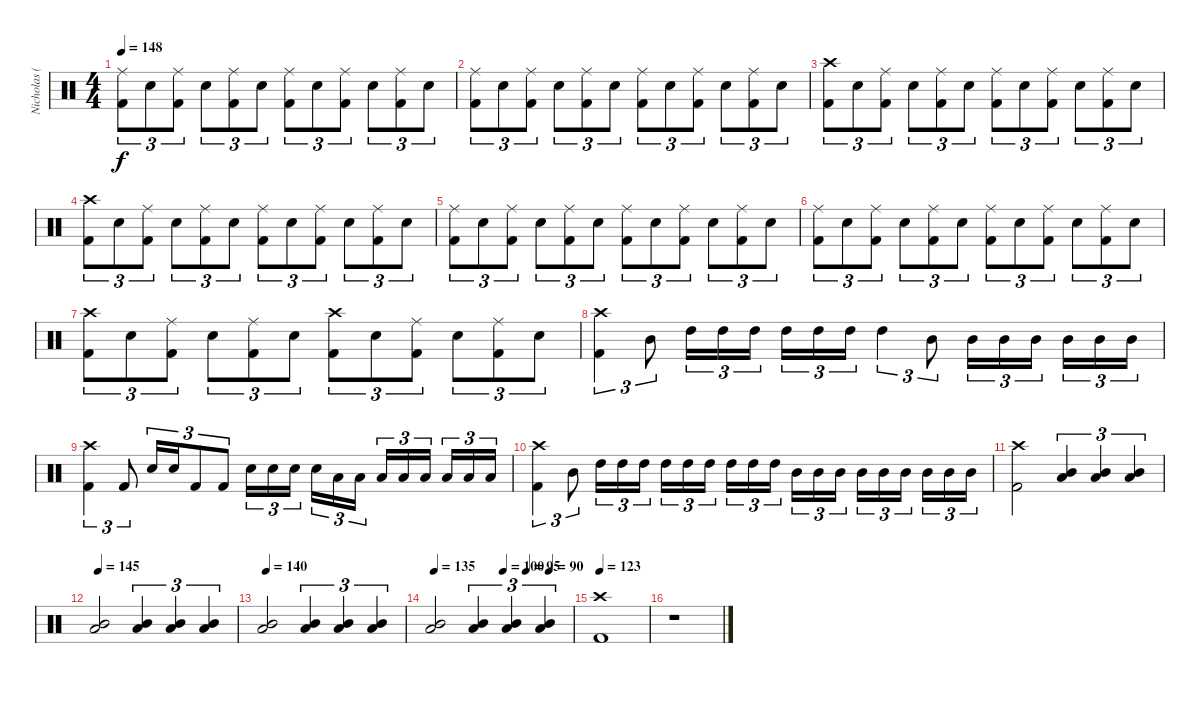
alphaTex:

\track ("Nicholas (Drums)" "Nicholas (") {instrument percussion}
\staff {score}
\articulation defaults
\ts (4 4)
\tempo 148
\clef neutral
\ks c
("Ride (middle)" "Kick (hit) 2").8{tu (3 2) dy f} "Electric Snare (hit)".8{tu (3 2)} ("Ride (middle)" "Kick (hit) 2").8{tu (3 2)} "Electric Snare (hit)".8{tu (3 2)} ("Ride (middle)" "Kick (hit) 2").8{tu (3 2)} "Electric Snare (hit)".8{tu (3 2)} ("Ride (middle)" "Kick (hit) 2").8{tu (3 2)} "Electric Snare (hit)".8{tu (3 2)} ("Ride (middle)" "Kick (hit) 2").8{tu (3 2)} "Electric Snare (hit)".8{tu (3 2)} ("Ride (middle)" "Kick (hit) 2").8{tu (3 2)} "Electric Snare (hit)".8{tu (3 2)} |
("Ride (middle)" "Kick (hit) 2").8{tu (3 2)} "Electric Snare (hit)".8{tu (3 2)} ("Ride (middle)" "Kick (hit) 2").8{tu (3 2)} "Electric Snare (hit)".8{tu (3 2)} ("Ride (middle)" "Kick (hit) 2").8{tu (3 2)} "Electric Snare (hit)".8{tu (3 2)} ("Ride (middle)" "Kick (hit) 2").8{tu (3 2)} "Electric Snare (hit)".8{tu (3 2)} ("Ride (middle)" "Kick (hit) 2").8{tu (3 2)} "Electric Snare (hit)".8{tu (3 2)} ("Ride (middle)" "Kick (hit) 2").8{tu (3 2)} "Electric Snare (hit)".8{tu (3 2)} |
("Crash high (hit)" "Kick (hit) 2").8{tu (3 2)} "Electric Snare (hit)".8{tu (3 2)} ("Ride (middle)" "Kick (hit) 2").8{tu (3 2)} "Electric Snare (hit)".8{tu (3 2)} ("Ride (middle)" "Kick (hit) 2").8{tu (3 2)} "Electric Snare (hit)".8{tu (3 2)} ("Ride (middle)" "Kick (hit) 2").8{tu (3 2)} "Electric Snare (hit)".8{tu (3 2)} ("Ride (middle)" "Kick (hit) 2").8{tu (3 2)} "Electric Snare (hit)".8{tu (3 2)} ("Ride (middle)" "Kick (hit) 2").8{tu (3 2)} "Electric Snare (hit)".8{tu (3 2)} |
("Crash high (hit)" "Kick (hit) 2").8{tu (3 2)} "Electric Snare (hit)".8{tu (3 2)} ("Ride (middle)" "Kick (hit) 2").8{tu (3 2)} "Electric Snare (hit)".8{tu (3 2)} ("Ride (middle)" "Kick (hit) 2").8{tu (3 2)} "Electric Snare (hit)".8{tu (3 2)} ("Ride (middle)" "Kick (hit) 2").8{tu (3 2)} "Electric Snare (hit)".8{tu (3 2)} ("Ride (middle)" "Kick (hit) 2").8{tu (3 2)} "Electric Snare (hit)".8{tu (3 2)} ("Ride (middle)" "Kick (hit) 2").8{tu (3 2)} "Electric Snare (hit)".8{tu (3 2)} |
("Ride (middle)" "Kick (hit) 2").8{tu (3 2)} "Electric Snare (hit)".8{tu (3 2)} ("Ride (middle)" "Kick (hit) 2").8{tu (3 2)} "Electric Snare (hit)".8{tu (3 2)} ("Ride (middle)" "Kick (hit) 2").8{tu (3 2)} "Electric Snare (hit)".8{tu (3 2)} ("Ride (middle)" "Kick (hit) 2").8{tu (3 2)} "Electric Snare (hit)".8{tu (3 2)} ("Ride (middle)" "Kick (hit) 2").8{tu (3 2)} "Electric Snare (hit)".8{tu (3 2)} ("Ride (middle)" "Kick (hit) 2").8{tu (3 2)} "Electric Snare (hit)".8{tu (3 2)} |
("Ride (middle)" "Kick (hit) 2").8{tu (3 2)} "Electric Snare (hit)".8{tu (3 2)} ("Ride (middle)" "Kick (hit) 2").8{tu (3 2)} "Electric Snare (hit)".8{tu (3 2)} ("Ride (middle)" "Kick (hit) 2").8{tu (3 2)} "Electric Snare (hit)".8{tu (3 2)} ("Ride (middle)" "Kick (hit) 2").8{tu (3 2)} "Electric Snare (hit)".8{tu (3 2)} ("Ride (middle)" "Kick (hit) 2").8{tu (3 2)} "Electric Snare (hit)".8{tu (3 2)} ("Ride (middle)" "Kick (hit) 2").8{tu (3 2)} "Electric Snare (hit)".8{tu (3 2)} |
("Crash high (hit)" "Kick (hit) 2").8{tu (3 2)} "Electric Snare (hit)".8{tu (3 2)} ("Ride (middle)" "Kick (hit) 2").8{tu (3 2)} "Electric Snare (hit)".8{tu (3 2)} ("Ride (middle)" "Kick (hit) 2").8{tu (3 2)} "Electric Snare (hit)".8{tu (3 2)} ("Crash high (hit)" "Kick (hit) 2").8{tu (3 2)} "Electric Snare (hit)".8{tu (3 2)} ("Ride (middle)" "Kick (hit) 2").8{tu (3 2)} "Electric Snare (hit)".8{tu (3 2)} ("Ride (middle)" "Kick (hit) 2").8{tu (3 2)} "Electric Snare (hit)".8{tu (3 2)} |
("Crash high (hit)" "Kick (hit) 2").4{tu (3 2)} "Mid Tom (hit)".8{tu (3 2) balance 5} "High Tom (hit)".16{tu (3 2)} "High Tom (hit)".16{tu (3 2)} "High Tom (hit)".16{tu (3 2)} "High Tom (hit)".16{tu (3 2)} "High Tom (hit)".16{tu (3 2)} "High Tom (hit)".16{tu (3 2)} "High Tom (hit)".4{tu (3 2)} "Mid Tom (hit)".8{tu (3 2) balance 9} "Mid Tom (hit)".16{tu (3 2)} "Mid Tom (hit)".16{tu (3 2)} "Mid Tom (hit)".16{tu (3 2)} "Mid Tom (hit)".16{tu (3 2)} "Mid Tom (hit)".16{tu (3 2)} "Mid Tom (hit)".16{tu (3 2)} |
("Crash high (hit)" "Kick (hit) 2").4{tu (3 2) balance 8} "Kick (hit) 2".8{tu (3 2)} "Electric Snare (hit)".16{tu (3 2)} "Electric Snare (hit)".16{tu (3 2)} "Kick (hit) 2".8{tu (3 2)} "Kick (hit) 2".8{tu (3 2)} "Electric Snare (hit)".16{tu (3 2)} "Electric Snare (hit)".16{tu (3 2)} "Electric Snare (hit)".16{tu (3 2)} "Electric Snare (hit)".16{tu (3 2)} "Low Tom (hit)".16{tu (3 2)} "Low Tom (hit)".16{tu (3 2)} "Low Tom (hit)".16{tu (3 2)} "Low Floor Tom (hit)".16{tu (3 2)} "Low Floor Tom (hit)".16{tu (3 2)} "Low Floor Tom (hit)".16{tu (3 2)} "Low Floor Tom (hit)".16{tu (3 2)} "Low Floor Tom (hit)".16{tu (3 2)} |
("Crash high (hit)" "Kick (hit) 2").4{tu (3 2)} "Mid Tom (hit)".8{tu (3 2) balance 5} "High Tom (hit)".16{tu (3 2)} "High Tom (hit)".16{tu (3 2)} "High Tom (hit)".16{tu (3 2)} "High Tom (hit)".16{tu (3 2)} "High Tom (hit)".16{tu (3 2)} "High Tom (hit)".16{tu (3 2)} "High Tom (hit)".16{tu (3 2)} "High Tom (hit)".16{tu (3 2)} "High Tom (hit)".16{tu (3 2)} "Mid Tom (hit)".16{tu (3 2) balance 9} "Mid Tom (hit)".16{tu (3 2)} "Mid Tom (hit)".16{tu (3 2)} "Mid Tom (hit)".16{tu (3 2)} "Mid Tom (hit)".16{tu (3 2)} "Mid Tom (hit)".16{tu (3 2)} "Mid Tom (hit)".16{tu (3 2)} "Mid Tom (hit)".16{tu (3 2)} "Mid Tom (hit)".16{tu (3 2)} |
("Crash high (hit)" "Kick (hit) 2").2 ("Mid Tom (hit)" "Low Floor Tom (hit)").4{tu (3 2)} ("Mid Tom (hit)" "Low Floor Tom (hit)").4{tu (3 2)} ("Mid Tom (hit)" "Low Floor Tom (hit)").4{tu (3 2)} |
\tempo 145
("Mid Tom (hit)" "Low Floor Tom (hit)").2 ("Mid Tom (hit)" "Low Floor Tom (hit)").4{tu (3 2)} ("Mid Tom (hit)" "Low Floor Tom (hit)").4{tu (3 2)} ("Mid Tom (hit)" "Low Floor Tom (hit)").4{tu (3 2)} |
\tempo 140
("Mid Tom (hit)" "Low Floor Tom (hit)").2 ("Mid Tom (hit)" "Low Floor Tom (hit)").4{tu (3 2)} ("Mid Tom (hit)" "Low Floor Tom (hit)").4{tu (3 2)} ("Mid Tom (hit)" "Low Floor Tom (hit)").4{tu (3 2)} |
\tempo 135
\tempo (100 0.5)
\tempo (95 0.6666666666666666)
\tempo (90 0.8333333333333334)
("Mid Tom (hit)" "Low Floor Tom (hit)").2 ("Mid Tom (hit)" "Low Floor Tom (hit)").4{tu (3 2)} ("Mid Tom (hit)" "Low Floor Tom (hit)").4{tu (3 2)} ("Mid Tom (hit)" "Low Floor Tom (hit)").4{tu (3 2)} |
\tempo 123
("Crash high (hit)" "Kick (hit) 2").1 |
r.1
